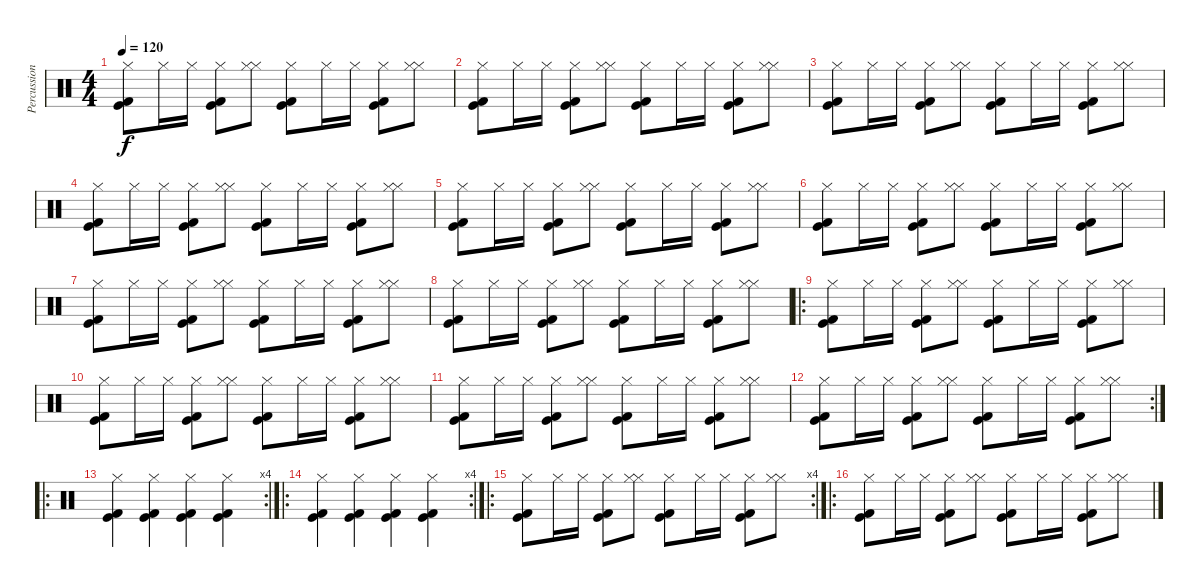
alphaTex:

\track ("Percussions" "Percussion") {instrument percussion}
\staff {score}
\articulation defaults
\ts (4 4)
\tempo 120
\clef neutral
\ks c
("Kick (hit) 2" "Kick (hit)" "Hi-Hat (closed)").8{dy f} "Hi-Hat (closed)".16 "Hi-Hat (closed)".16 ("Kick (hit) 2" "Kick (hit)" "Hi-Hat (closed)").8 ("Hi-Hat (closed)" "Hi-Hat (closed)").8 ("Kick (hit) 2" "Kick (hit)" "Hi-Hat (closed)").8 "Hi-Hat (closed)".16 "Hi-Hat (closed)".16 ("Kick (hit) 2" "Kick (hit)" "Hi-Hat (closed)").8 ("Hi-Hat (closed)" "Hi-Hat (closed)").8 |
("Kick (hit) 2" "Kick (hit)" "Hi-Hat (closed)").8 "Hi-Hat (closed)".16 "Hi-Hat (closed)".16 ("Kick (hit) 2" "Kick (hit)" "Hi-Hat (closed)").8 ("Hi-Hat (closed)" "Hi-Hat (closed)").8 ("Kick (hit) 2" "Kick (hit)" "Hi-Hat (closed)").8 "Hi-Hat (closed)".16 "Hi-Hat (closed)".16 ("Kick (hit) 2" "Kick (hit)" "Hi-Hat (closed)").8 ("Hi-Hat (closed)" "Hi-Hat (closed)").8 |
("Kick (hit) 2" "Kick (hit)" "Hi-Hat (closed)").8 "Hi-Hat (closed)".16 "Hi-Hat (closed)".16 ("Kick (hit) 2" "Kick (hit)" "Hi-Hat (closed)").8 ("Hi-Hat (closed)" "Hi-Hat (closed)").8 ("Kick (hit) 2" "Kick (hit)" "Hi-Hat (closed)").8 "Hi-Hat (closed)".16 "Hi-Hat (closed)".16 ("Kick (hit) 2" "Kick (hit)" "Hi-Hat (closed)").8 ("Hi-Hat (closed)" "Hi-Hat (closed)").8 |
("Kick (hit) 2" "Kick (hit)" "Hi-Hat (closed)").8 "Hi-Hat (closed)".16 "Hi-Hat (closed)".16 ("Kick (hit) 2" "Kick (hit)" "Hi-Hat (closed)").8 ("Hi-Hat (closed)" "Hi-Hat (closed)").8 ("Kick (hit) 2" "Kick (hit)" "Hi-Hat (closed)").8 "Hi-Hat (closed)".16 "Hi-Hat (closed)".16 ("Kick (hit) 2" "Kick (hit)" "Hi-Hat (closed)").8 ("Hi-Hat (closed)" "Hi-Hat (closed)").8 |
("Kick (hit) 2" "Kick (hit)" "Hi-Hat (closed)").8 "Hi-Hat (closed)".16 "Hi-Hat (closed)".16 ("Kick (hit) 2" "Kick (hit)" "Hi-Hat (closed)").8 ("Hi-Hat (closed)" "Hi-Hat (closed)").8 ("Kick (hit) 2" "Kick (hit)" "Hi-Hat (closed)").8 "Hi-Hat (closed)".16 "Hi-Hat (closed)".16 ("Kick (hit) 2" "Kick (hit)" "Hi-Hat (closed)").8 ("Hi-Hat (closed)" "Hi-Hat (closed)").8 |
("Kick (hit) 2" "Kick (hit)" "Hi-Hat (closed)").8 "Hi-Hat (closed)".16 "Hi-Hat (closed)".16 ("Kick (hit) 2" "Kick (hit)" "Hi-Hat (closed)").8 ("Hi-Hat (closed)" "Hi-Hat (closed)").8 ("Kick (hit) 2" "Kick (hit)" "Hi-Hat (closed)").8 "Hi-Hat (closed)".16 "Hi-Hat (closed)".16 ("Kick (hit) 2" "Kick (hit)" "Hi-Hat (closed)").8 ("Hi-Hat (closed)" "Hi-Hat (closed)").8 |
("Kick (hit) 2" "Kick (hit)" "Hi-Hat (closed)").8 "Hi-Hat (closed)".16 "Hi-Hat (closed)".16 ("Kick (hit) 2" "Kick (hit)" "Hi-Hat (closed)").8 ("Hi-Hat (closed)" "Hi-Hat (closed)").8 ("Kick (hit) 2" "Kick (hit)" "Hi-Hat (closed)").8 "Hi-Hat (closed)".16 "Hi-Hat (closed)".16 ("Kick (hit) 2" "Kick (hit)" "Hi-Hat (closed)").8 ("Hi-Hat (closed)" "Hi-Hat (closed)").8 |
("Kick (hit) 2" "Kick (hit)" "Hi-Hat (closed)").8 "Hi-Hat (closed)".16 "Hi-Hat (closed)".16 ("Kick (hit) 2" "Kick (hit)" "Hi-Hat (closed)").8 ("Hi-Hat (closed)" "Hi-Hat (closed)").8 ("Kick (hit) 2" "Kick (hit)" "Hi-Hat (closed)").8 "Hi-Hat (closed)".16 "Hi-Hat (closed)".16 ("Kick (hit) 2" "Kick (hit)" "Hi-Hat (closed)").8 ("Hi-Hat (closed)" "Hi-Hat (closed)").8 |
\ro
("Kick (hit) 2" "Kick (hit)" "Hi-Hat (closed)").8 "Hi-Hat (closed)".16 "Hi-Hat (closed)".16 ("Kick (hit) 2" "Kick (hit)" "Hi-Hat (closed)").8 ("Hi-Hat (closed)" "Hi-Hat (closed)").8 ("Kick (hit) 2" "Kick (hit)" "Hi-Hat (closed)").8 "Hi-Hat (closed)".16 "Hi-Hat (closed)".16 ("Kick (hit) 2" "Kick (hit)" "Hi-Hat (closed)").8 ("Hi-Hat (closed)" "Hi-Hat (closed)").8 |
("Kick (hit) 2" "Kick (hit)" "Hi-Hat (closed)").8 "Hi-Hat (closed)".16 "Hi-Hat (closed)".16 ("Kick (hit) 2" "Kick (hit)" "Hi-Hat (closed)").8 ("Hi-Hat (closed)" "Hi-Hat (closed)").8 ("Kick (hit) 2" "Kick (hit)" "Hi-Hat (closed)").8 "Hi-Hat (closed)".16 "Hi-Hat (closed)".16 ("Kick (hit) 2" "Kick (hit)" "Hi-Hat (closed)").8 ("Hi-Hat (closed)" "Hi-Hat (closed)").8 |
("Kick (hit) 2" "Kick (hit)" "Hi-Hat (closed)").8 "Hi-Hat (closed)".16 "Hi-Hat (closed)".16 ("Kick (hit) 2" "Kick (hit)" "Hi-Hat (closed)").8 ("Hi-Hat (closed)" "Hi-Hat (closed)").8 ("Kick (hit) 2" "Kick (hit)" "Hi-Hat (closed)").8 "Hi-Hat (closed)".16 "Hi-Hat (closed)".16 ("Kick (hit) 2" "Kick (hit)" "Hi-Hat (closed)").8 ("Hi-Hat (closed)" "Hi-Hat (closed)").8 |
\rc 2
("Kick (hit) 2" "Kick (hit)" "Hi-Hat (closed)").8 "Hi-Hat (closed)".16 "Hi-Hat (closed)".16 ("Kick (hit) 2" "Kick (hit)" "Hi-Hat (closed)").8 ("Hi-Hat (closed)" "Hi-Hat (closed)").8 ("Kick (hit) 2" "Kick (hit)" "Hi-Hat (closed)").8 "Hi-Hat (closed)".16 "Hi-Hat (closed)".16 ("Kick (hit) 2" "Kick (hit)" "Hi-Hat (closed)").8 ("Hi-Hat (closed)" "Hi-Hat (closed)").8 |
\ro
\rc 4
("Kick (hit) 2" "Kick (hit)" "Hi-Hat (closed)").4 ("Kick (hit) 2" "Kick (hit)" "Hi-Hat (closed)").4 ("Kick (hit) 2" "Kick (hit)" "Hi-Hat (closed)").4 ("Kick (hit) 2" "Kick (hit)" "Hi-Hat (closed)").4 |
\ro
\rc 4
("Kick (hit) 2" "Kick (hit)" "Hi-Hat (closed)").4 ("Kick (hit) 2" "Kick (hit)" "Hi-Hat (closed)").4 ("Kick (hit) 2" "Kick (hit)" "Hi-Hat (closed)").4 ("Kick (hit) 2" "Kick (hit)" "Hi-Hat (closed)").4 |
\ro
\rc 4
("Kick (hit) 2" "Kick (hit)" "Hi-Hat (closed)").8 "Hi-Hat (closed)".16 "Hi-Hat (closed)".16 ("Kick (hit) 2" "Kick (hit)" "Hi-Hat (closed)").8 ("Hi-Hat (closed)" "Hi-Hat (closed)").8 ("Kick (hit) 2" "Kick (hit)" "Hi-Hat (closed)").8 "Hi-Hat (closed)".16 "Hi-Hat (closed)".16 ("Kick (hit) 2" "Kick (hit)" "Hi-Hat (closed)").8 ("Hi-Hat (closed)" "Hi-Hat (closed)").8 |
\ro
("Kick (hit) 2" "Kick (hit)" "Hi-Hat (closed)").8 "Hi-Hat (closed)".16 "Hi-Hat (closed)".16 ("Kick (hit) 2" "Kick (hit)" "Hi-Hat (closed)").8 ("Hi-Hat (closed)" "Hi-Hat (closed)").8 ("Kick (hit) 2" "Kick (hit)" "Hi-Hat (closed)").8 "Hi-Hat (closed)".16 "Hi-Hat (closed)".16 ("Kick (hit) 2" "Kick (hit)" "Hi-Hat (closed)").8 ("Hi-Hat (closed)" "Hi-Hat (closed)").8
